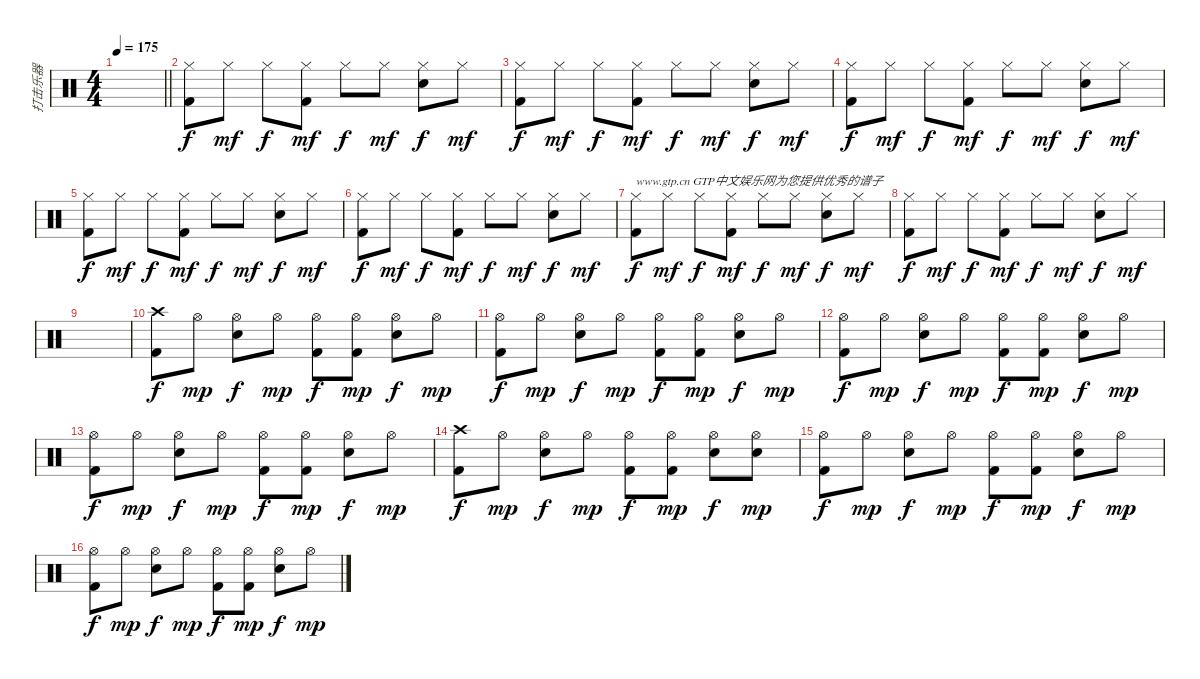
\track ("打击乐器" "打击乐器") {instrument percussion}
\staff {score}
\articulation defaults
\ts (4 4)
\tempo 175
\clef neutral
\barLineRight lightlight
\ks c
|
("Hi-Hat (closed)" "Kick (hit) 2").8 "Hi-Hat (closed)".8{dy mf} "Hi-Hat (closed)".8{dy f} ("Hi-Hat (closed)" "Kick (hit) 2").8{dy mf} "Hi-Hat (closed)".8{dy f} "Hi-Hat (closed)".8{dy mf} ("Hi-Hat (closed)" "Electric Snare (hit)").8{dy f} "Hi-Hat (closed)".8{dy mf} |
("Hi-Hat (closed)" "Kick (hit) 2").8{dy f} "Hi-Hat (closed)".8{dy mf} "Hi-Hat (closed)".8{dy f} ("Hi-Hat (closed)" "Kick (hit) 2").8{dy mf} "Hi-Hat (closed)".8{dy f} "Hi-Hat (closed)".8{dy mf} ("Hi-Hat (closed)" "Electric Snare (hit)").8{dy f} "Hi-Hat (closed)".8{dy mf} |
("Hi-Hat (closed)" "Kick (hit) 2").8{dy f} "Hi-Hat (closed)".8{dy mf} "Hi-Hat (closed)".8{dy f} ("Hi-Hat (closed)" "Kick (hit) 2").8{dy mf} "Hi-Hat (closed)".8{dy f} "Hi-Hat (closed)".8{dy mf} ("Hi-Hat (closed)" "Electric Snare (hit)").8{dy f} "Hi-Hat (closed)".8{dy mf} |
("Hi-Hat (closed)" "Kick (hit) 2").8{dy f} "Hi-Hat (closed)".8{dy mf} "Hi-Hat (closed)".8{dy f} ("Hi-Hat (closed)" "Kick (hit) 2").8{dy mf} "Hi-Hat (closed)".8{dy f} "Hi-Hat (closed)".8{dy mf} ("Hi-Hat (closed)" "Electric Snare (hit)").8{dy f} "Hi-Hat (closed)".8{dy mf} |
("Hi-Hat (closed)" "Kick (hit) 2").8{dy f} "Hi-Hat (closed)".8{dy mf} "Hi-Hat (closed)".8{dy f} ("Hi-Hat (closed)" "Kick (hit) 2").8{dy mf} "Hi-Hat (closed)".8{dy f} "Hi-Hat (closed)".8{dy mf} ("Hi-Hat (closed)" "Electric Snare (hit)").8{dy f} "Hi-Hat (closed)".8{dy mf} |
("Hi-Hat (closed)" "Kick (hit) 2").8{txt "www.gtp.cn GTP中文娱乐网为您提供优秀的谱子" dy f} "Hi-Hat (closed)".8{dy mf} "Hi-Hat (closed)".8{dy f} ("Hi-Hat (closed)" "Kick (hit) 2").8{dy mf} "Hi-Hat (closed)".8{dy f} "Hi-Hat (closed)".8{dy mf} ("Hi-Hat (closed)" "Electric Snare (hit)").8{dy f} "Hi-Hat (closed)".8{dy mf} |
("Hi-Hat (closed)" "Kick (hit) 2").8{dy f} "Hi-Hat (closed)".8{dy mf} "Hi-Hat (closed)".8{dy f} ("Hi-Hat (closed)" "Kick (hit) 2").8{dy mf} "Hi-Hat (closed)".8{dy f} "Hi-Hat (closed)".8{dy mf} ("Hi-Hat (closed)" "Electric Snare (hit)").8{dy f} "Hi-Hat (closed)".8{dy mf} |
|
("Crash high (hit)" "Kick (hit) 2").8{dy f} "Hi-Hat (open)".8{dy mp} ("Hi-Hat (open)" "Electric Snare (hit)").8{dy f} "Hi-Hat (open)".8{dy mp} ("Hi-Hat (open)" "Kick (hit) 2").8{dy f} ("Hi-Hat (open)" "Kick (hit) 2").8{dy mp} ("Hi-Hat (open)" "Electric Snare (hit)").8{dy f} "Hi-Hat (open)".8{dy mp} |
("Hi-Hat (open)" "Kick (hit) 2").8{txt " " dy f} "Hi-Hat (open)".8{dy mp} ("Hi-Hat (open)" "Electric Snare (hit)").8{dy f} "Hi-Hat (open)".8{dy mp} ("Hi-Hat (open)" "Kick (hit) 2").8{dy f} ("Hi-Hat (open)" "Kick (hit) 2").8{dy mp} ("Hi-Hat (open)" "Electric Snare (hit)").8{dy f} "Hi-Hat (open)".8{dy mp} |
("Hi-Hat (open)" "Kick (hit) 2").8{dy f} "Hi-Hat (open)".8{dy mp} ("Hi-Hat (open)" "Electric Snare (hit)").8{dy f} "Hi-Hat (open)".8{dy mp} ("Hi-Hat (open)" "Kick (hit) 2").8{dy f} ("Hi-Hat (open)" "Kick (hit) 2").8{dy mp} ("Hi-Hat (open)" "Electric Snare (hit)").8{dy f} "Hi-Hat (open)".8{dy mp} |
("Hi-Hat (open)" "Kick (hit) 2").8{dy f} "Hi-Hat (open)".8{dy mp} ("Hi-Hat (open)" "Electric Snare (hit)").8{dy f} "Hi-Hat (open)".8{dy mp} ("Hi-Hat (open)" "Kick (hit) 2").8{dy f} ("Hi-Hat (open)" "Kick (hit) 2").8{dy mp} ("Hi-Hat (open)" "Electric Snare (hit)").8{dy f} "Hi-Hat (open)".8{dy mp} |
("Crash high (hit)" "Kick (hit) 2").8{dy f} "Hi-Hat (open)".8{dy mp} ("Hi-Hat (open)" "Electric Snare (hit)").8{dy f} "Hi-Hat (open)".8{dy mp} ("Hi-Hat (open)" "Kick (hit) 2").8{dy f} ("Hi-Hat (open)" "Kick (hit) 2").8{dy mp} ("Hi-Hat (open)" "Electric Snare (hit)").8{dy f} ("Hi-Hat (open)" "Electric Snare (hit)").8{dy mp} |
("Hi-Hat (open)" "Kick (hit) 2").8{dy f} "Hi-Hat (open)".8{dy mp} ("Hi-Hat (open)" "Electric Snare (hit)").8{dy f} "Hi-Hat (open)".8{dy mp} ("Hi-Hat (open)" "Kick (hit) 2").8{dy f} ("Hi-Hat (open)" "Kick (hit) 2").8{dy mp} ("Hi-Hat (open)" "Electric Snare (hit)").8{dy f} "Hi-Hat (open)".8{dy mp} |
("Hi-Hat (open)" "Kick (hit) 2").8{dy f} "Hi-Hat (open)".8{dy mp} ("Hi-Hat (open)" "Electric Snare (hit)").8{dy f} "Hi-Hat (open)".8{dy mp} ("Hi-Hat (open)" "Kick (hit) 2").8{dy f} ("Hi-Hat (open)" "Kick (hit) 2").8{dy mp} ("Hi-Hat (open)" "Electric Snare (hit)").8{dy f} "Hi-Hat (open)".8{dy mp}
